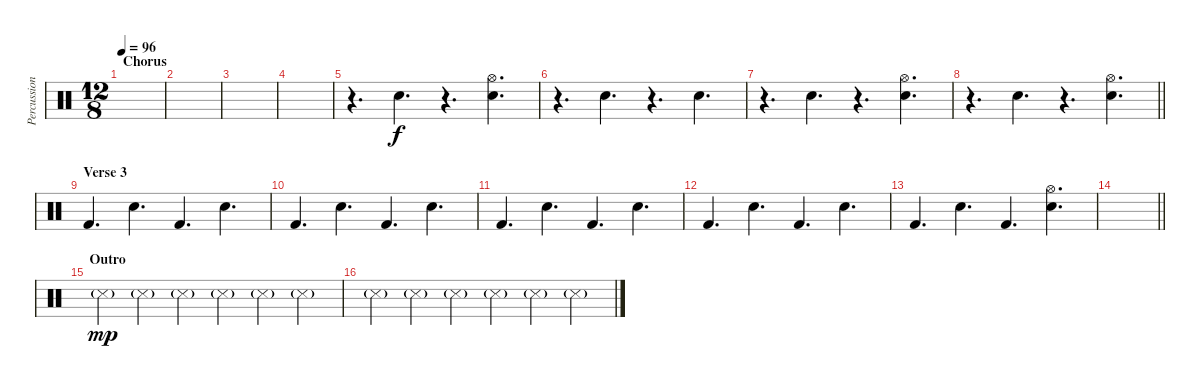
\track ("Percussion" "Percussion") {instrument percussion}
\staff {score}
\articulation defaults
\ts (12 8)
\section ("" "Chorus")
\tempo 96
\clef neutral
\ks c
|
|
|
|
r.4{d} "Snare (hit) 2".4{d} r.4{d} ("Hi-Hat (open)" "Snare (hit) 2").4{d} |
r.4{d} "Snare (hit) 2".4{d} r.4{d} "Snare (hit) 2".4{d} |
r.4{d} "Snare (hit) 2".4{d} r.4{d} ("Hi-Hat (open)" "Snare (hit) 2").4{d} |
\barLineRight lightlight
r.4{d} "Snare (hit) 2".4{d} r.4{d} ("Hi-Hat (open)" "Snare (hit) 2").4{d} |
\section ("" "Verse 3")
"Kick (hit) 2".4{d} "Snare (hit) 2".4{d} "Kick (hit) 2".4{d} "Snare (hit) 2".4{d} |
"Kick (hit) 2".4{d} "Snare (hit) 2".4{d} "Kick (hit) 2".4{d} "Snare (hit) 2".4{d} |
"Kick (hit) 2".4{d} "Snare (hit) 2".4{d} "Kick (hit) 2".4{d} "Snare (hit) 2".4{d} |
"Kick (hit) 2".4{d} "Snare (hit) 2".4{d} "Kick (hit) 2".4{d} "Snare (hit) 2".4{d} |
"Kick (hit) 2".4{d} "Snare (hit) 2".4{d} "Kick (hit) 2".4{d} ("Hi-Hat (open)" "Snare (hit) 2").4{d} |
\barLineRight lightlight
|
\section ("" "Outro")
"Snare (side stick) 3"{g}.4{dy mp} "Snare (side stick) 3"{g}.4 "Snare (side stick) 3"{g}.4 "Snare (side stick) 3"{g}.4 "Snare (side stick) 3"{g}.4 "Snare (side stick) 3"{g}.4 |
"Snare (side stick) 3"{g}.4 "Snare (side stick) 3"{g}.4 "Snare (side stick) 3"{g}.4 "Snare (side stick) 3"{g}.4 "Snare (side stick) 3"{g}.4 "Snare (side stick) 3"{g}.4
